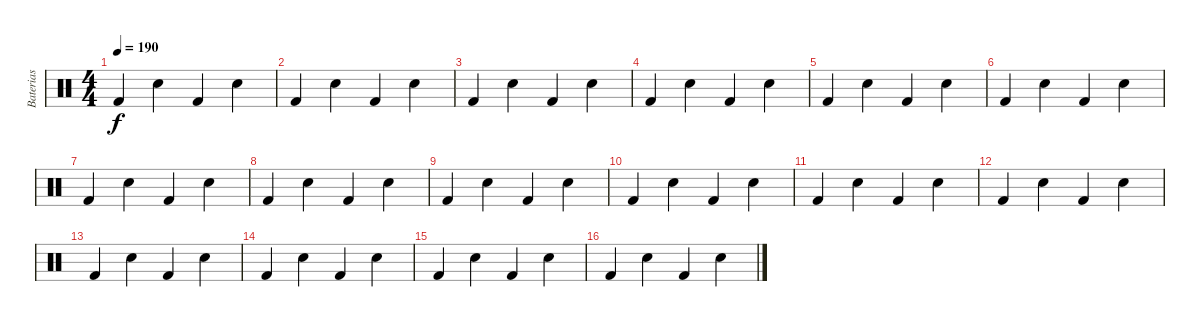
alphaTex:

\track ("Baterias" "Baterias") {instrument percussion}
\staff {score}
\articulation defaults
\ts (4 4)
\tempo 190
\clef neutral
\ks c "Kick (hit) 2".4{dy f} "Electric Snare (hit)".4 "Kick (hit) 2".4 "Electric Snare (hit)".4
|
"Kick (hit) 2".4 "Electric Snare (hit)".4 "Kick (hit) 2".4 "Electric Snare (hit)".4 |
"Kick (hit) 2".4 "Electric Snare (hit)".4 "Kick (hit) 2".4 "Electric Snare (hit)".4 |
"Kick (hit) 2".4 "Electric Snare (hit)".4 "Kick (hit) 2".4 "Electric Snare (hit)".4 |
"Kick (hit) 2".4 "Electric Snare (hit)".4 "Kick (hit) 2".4 "Electric Snare (hit)".4 |
"Kick (hit) 2".4 "Electric Snare (hit)".4 "Kick (hit) 2".4 "Electric Snare (hit)".4 |
"Kick (hit) 2".4 "Electric Snare (hit)".4 "Kick (hit) 2".4 "Electric Snare (hit)".4 |
"Kick (hit) 2".4 "Electric Snare (hit)".4 "Kick (hit) 2".4 "Electric Snare (hit)".4 |
"Kick (hit) 2".4 "Electric Snare (hit)".4 "Kick (hit) 2".4 "Electric Snare (hit)".4 |
"Kick (hit) 2".4 "Electric Snare (hit)".4 "Kick (hit) 2".4 "Electric Snare (hit)".4 |
"Kick (hit) 2".4 "Electric Snare (hit)".4 "Kick (hit) 2".4 "Electric Snare (hit)".4 |
"Kick (hit) 2".4 "Electric Snare (hit)".4 "Kick (hit) 2".4 "Electric Snare (hit)".4 |
"Kick (hit) 2".4 "Electric Snare (hit)".4 "Kick (hit) 2".4 "Electric Snare (hit)".4 |
"Kick (hit) 2".4 "Electric Snare (hit)".4 "Kick (hit) 2".4 "Electric Snare (hit)".4 |
"Kick (hit) 2".4 "Electric Snare (hit)".4 "Kick (hit) 2".4 "Electric Snare (hit)".4 |
"Kick (hit) 2".4 "Electric Snare (hit)".4 "Kick (hit) 2".4 "Electric Snare (hit)".4
